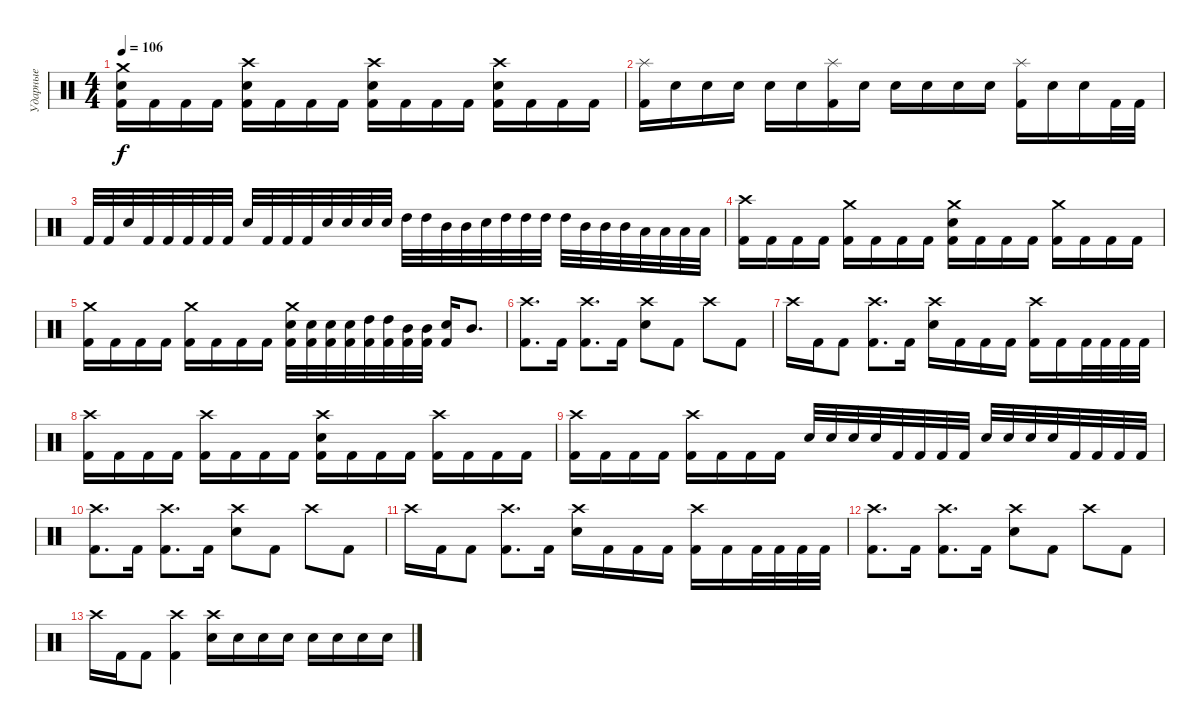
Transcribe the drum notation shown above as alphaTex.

\track ("Ударные" "Ударные") {instrument percussion}
\staff {score}
\articulation defaults
\ts (4 4)
\tempo 106
\clef neutral
\ks c
("Crash medium (hit)" "Electric Snare (hit)" "Kick (hit) 2").16{dy f} "Kick (hit) 2".16 "Kick (hit) 2".16 "Kick (hit) 2".16 ("Crash high (hit)" "Electric Snare (hit)" "Kick (hit) 2").16 "Kick (hit) 2".16 "Kick (hit) 2".16 "Kick (hit) 2".16 ("Crash high (hit)" "Electric Snare (hit)" "Kick (hit) 2").16 "Kick (hit) 2".16 "Kick (hit) 2".16 "Kick (hit) 2".16 ("Crash high (hit)" "Electric Snare (hit)" "Kick (hit) 2").16 "Kick (hit) 2".16 "Kick (hit) 2".16 "Kick (hit) 2".16 |
("Splash (hit)" "Kick (hit) 2").16 "Electric Snare (hit)".16 "Electric Snare (hit)".16 "Electric Snare (hit)".16 "Electric Snare (hit)".16 "Electric Snare (hit)".16 ("Splash (hit)" "Kick (hit) 2").16 "Electric Snare (hit)".16 "Electric Snare (hit)".16 "Electric Snare (hit)".16 "Electric Snare (hit)".16 "Electric Snare (hit)".16 ("Splash (hit)" "Kick (hit) 2").16 "Electric Snare (hit)".16 "Electric Snare (hit)".16 "Kick (hit) 2".32 "Kick (hit) 2".32 |
"Kick (hit) 2".32 "Kick (hit) 2".32 "Electric Snare (hit)".32 "Kick (hit) 2".32 "Kick (hit) 2".32 "Kick (hit) 2".32 "Kick (hit) 2".32 "Kick (hit) 2".32 "Electric Snare (hit)".32 "Kick (hit) 2".32 "Kick (hit) 2".32 "Kick (hit) 2".32 "Electric Snare (hit)".32 "Electric Snare (hit)".32 "Electric Snare (hit)".32 "Electric Snare (hit)".32 "High Tom (hit)".32 "High Tom (hit)".32 "Mid Tom (hit)".32 "Mid Tom (hit)".32 "Electric Snare (hit)".32 "High Tom (hit)".32 "High Tom (hit)".32 "High Tom (hit)".32 "High Tom (hit)".32 "Mid Tom (hit)".32 "Mid Tom (hit)".32 "Mid Tom (hit)".32 "Low Tom (hit)".32 "Low Tom (hit)".32 "Low Tom (hit)".32 "Low Tom (hit)".32 |
("Crash high (hit)" "Kick (hit) 2").16 "Kick (hit) 2".16 "Kick (hit) 2".16 "Kick (hit) 2".16 ("Crash medium (hit)" "Kick (hit) 2").16 "Kick (hit) 2".16 "Kick (hit) 2".16 "Kick (hit) 2".16 ("Crash medium (hit)" "Electric Snare (hit)" "Kick (hit) 2").16 "Kick (hit) 2".16 "Kick (hit) 2".16 "Kick (hit) 2".16 ("Crash medium (hit)" "Kick (hit) 2").16 "Kick (hit) 2".16 "Kick (hit) 2".16 "Kick (hit) 2".16 |
("Crash medium (hit)" "Kick (hit) 2").16 "Kick (hit) 2".16 "Kick (hit) 2".16 "Kick (hit) 2".16 ("Crash medium (hit)" "Kick (hit) 2").16 "Kick (hit) 2".16 "Kick (hit) 2".16 "Kick (hit) 2".16 ("Crash medium (hit)" "Electric Snare (hit)" "Kick (hit) 2").32 ("Electric Snare (hit)" "Kick (hit) 2").32 ("Electric Snare (hit)" "Kick (hit) 2").32 ("Electric Snare (hit)" "Kick (hit) 2").32 ("High Tom (hit)" "Kick (hit) 2").32 ("High Tom (hit)" "Kick (hit) 2").32 ("Mid Tom (hit)" "Kick (hit) 2").32 ("Mid Tom (hit)" "Kick (hit) 2").32 ("Electric Snare (hit)" "Kick (hit) 2").16 "Mid Tom (hit)".8{d} |
("Crash high (hit)" "Kick (hit) 2").8{d} "Kick (hit) 2".16 ("Crash high (hit)" "Kick (hit) 2").8{d} "Kick (hit) 2".16 ("Crash high (hit)" "Electric Snare (hit)").8 "Kick (hit) 2".8 "Crash high (hit)".8 "Kick (hit) 2".8 |
"Crash high (hit)".16 "Kick (hit) 2".16 "Kick (hit) 2".8 ("Crash high (hit)" "Kick (hit) 2").8{d} "Kick (hit) 2".16 ("Crash high (hit)" "Electric Snare (hit)").16 "Kick (hit) 2".16 "Kick (hit) 2".16 "Kick (hit) 2".16 ("Crash high (hit)" "Kick (hit) 2").16 "Kick (hit) 2".16 "Kick (hit) 2".32 "Kick (hit) 2".32 "Kick (hit) 2".32 "Kick (hit) 2".32 |
("Crash high (hit)" "Kick (hit) 2").16 "Kick (hit) 2".16 "Kick (hit) 2".16 "Kick (hit) 2".16 ("Crash high (hit)" "Kick (hit) 2").16 "Kick (hit) 2".16 "Kick (hit) 2".16 "Kick (hit) 2".16 ("Crash high (hit)" "Electric Snare (hit)" "Kick (hit) 2").16 "Kick (hit) 2".16 "Kick (hit) 2".16 "Kick (hit) 2".16 ("Crash high (hit)" "Kick (hit) 2").16 "Kick (hit) 2".16 "Kick (hit) 2".16 "Kick (hit) 2".16 |
("Crash high (hit)" "Kick (hit) 2").16 "Kick (hit) 2".16 "Kick (hit) 2".16 "Kick (hit) 2".16 ("Crash high (hit)" "Kick (hit) 2").16 "Kick (hit) 2".16 "Kick (hit) 2".16 "Kick (hit) 2".16 "Electric Snare (hit)".32 "Electric Snare (hit)".32 "Electric Snare (hit)".32 "Electric Snare (hit)".32 "Kick (hit) 2".32 "Kick (hit) 2".32 "Kick (hit) 2".32 "Kick (hit) 2".32 "Electric Snare (hit)".32 "Electric Snare (hit)".32 "Electric Snare (hit)".32 "Electric Snare (hit)".32 "Kick (hit) 2".32 "Kick (hit) 2".32 "Kick (hit) 2".32 "Kick (hit) 2".32 |
("Crash high (hit)" "Kick (hit) 2").8{d} "Kick (hit) 2".16 ("Crash high (hit)" "Kick (hit) 2").8{d} "Kick (hit) 2".16 ("Crash high (hit)" "Electric Snare (hit)").8 "Kick (hit) 2".8 "Crash high (hit)".8 "Kick (hit) 2".8 |
"Crash high (hit)".16 "Kick (hit) 2".16 "Kick (hit) 2".8 ("Crash high (hit)" "Kick (hit) 2").8{d} "Kick (hit) 2".16 ("Crash high (hit)" "Electric Snare (hit)").16 "Kick (hit) 2".16 "Kick (hit) 2".16 "Kick (hit) 2".16 ("Crash high (hit)" "Kick (hit) 2").16 "Kick (hit) 2".16 "Kick (hit) 2".32 "Kick (hit) 2".32 "Kick (hit) 2".32 "Kick (hit) 2".32 |
("Crash high (hit)" "Kick (hit) 2").8{d} "Kick (hit) 2".16 ("Crash high (hit)" "Kick (hit) 2").8{d} "Kick (hit) 2".16 ("Crash high (hit)" "Electric Snare (hit)").8 "Kick (hit) 2".8 "Crash high (hit)".8 "Kick (hit) 2".8 |
"Crash high (hit)".16 "Kick (hit) 2".16 "Kick (hit) 2".8 ("Crash high (hit)" "Kick (hit) 2").4 ("Crash high (hit)" "Electric Snare (hit)").16 "Electric Snare (hit)".16 "Electric Snare (hit)".16 "Electric Snare (hit)".16 "Electric Snare (hit)".16 "Electric Snare (hit)".16 "Electric Snare (hit)".16 "Electric Snare (hit)".16
